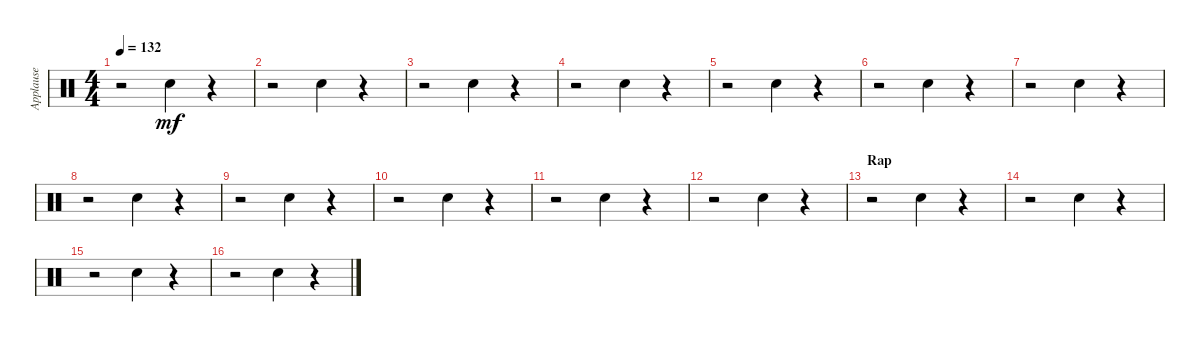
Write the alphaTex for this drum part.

\track ("Applause" "Applause") {instrument percussion}
\staff {score}
\articulation defaults
\ts (4 4)
\tempo 132
\clef neutral
\ks c
r.2{dy mf} "Hand Clap (hit)".4 r.4 |
r.2 "Hand Clap (hit)".4 r.4 |
r.2 "Hand Clap (hit)".4 r.4 |
r.2 "Hand Clap (hit)".4 r.4 |
r.2 "Hand Clap (hit)".4 r.4 |
r.2 "Hand Clap (hit)".4 r.4 |
r.2 "Hand Clap (hit)".4 r.4 |
r.2 "Hand Clap (hit)".4 r.4 |
r.2 "Hand Clap (hit)".4 r.4 |
r.2 "Hand Clap (hit)".4 r.4 |
r.2 "Hand Clap (hit)".4 r.4 |
r.2 "Hand Clap (hit)".4 r.4 |
\section ("" "Rap")
r.2 "Hand Clap (hit)".4 r.4 |
r.2 "Hand Clap (hit)".4 r.4 |
r.2 "Hand Clap (hit)".4 r.4 |
r.2 "Hand Clap (hit)".4 r.4
